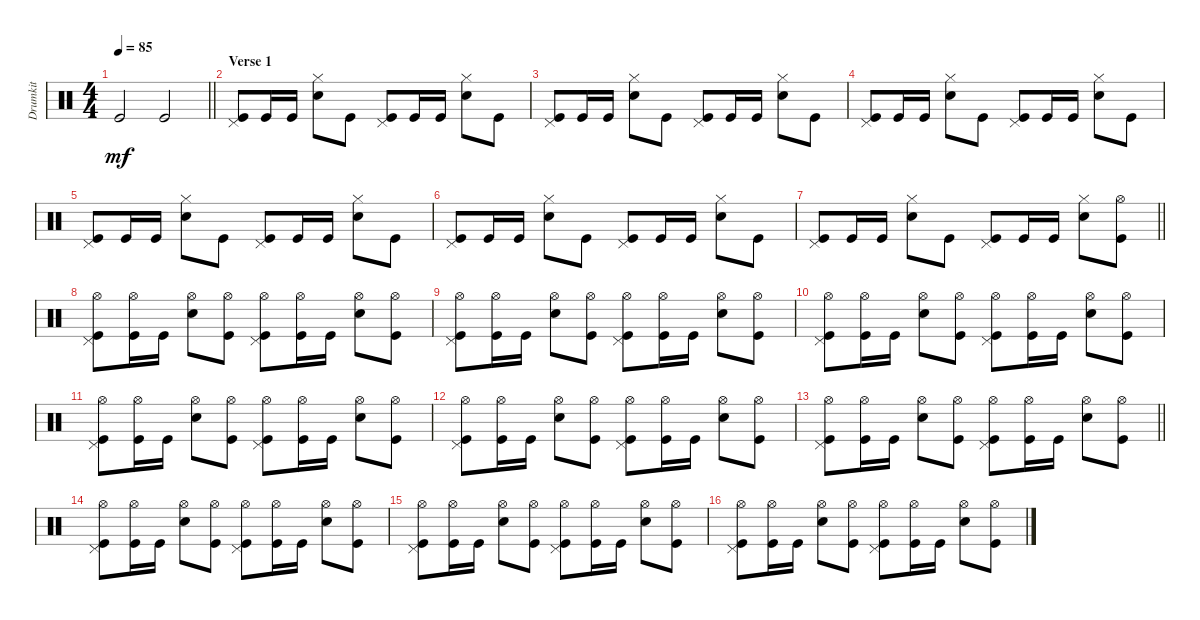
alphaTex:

\track ("Drumkit" "Drumkit") {instrument percussion}
\staff {score}
\articulation defaults
\ts (4 4)
\tempo 85
\clef neutral
\barLineRight lightlight
\ks c "Kick (hit)".2{dy mf} "Kick (hit)".2
|
\section ("" "Verse 1")
("Kick (hit)" "Pedal Hi-Hat (hit)").8 "Kick (hit)".16 "Kick (hit)".16 ("Snare (hit) 2" "Hi-Hat (closed)").8 "Kick (hit)".8 ("Kick (hit)" "Pedal Hi-Hat (hit)").8 "Kick (hit)".16 "Kick (hit)".16 ("Snare (hit) 2" "Hi-Hat (closed)").8 "Kick (hit)".8 |
("Kick (hit)" "Pedal Hi-Hat (hit)").8 "Kick (hit)".16 "Kick (hit)".16 ("Snare (hit) 2" "Hi-Hat (closed)").8 "Kick (hit)".8 ("Kick (hit)" "Pedal Hi-Hat (hit)").8 "Kick (hit)".16 "Kick (hit)".16 ("Snare (hit) 2" "Hi-Hat (closed)").8 "Kick (hit)".8 |
("Kick (hit)" "Pedal Hi-Hat (hit)").8 "Kick (hit)".16 "Kick (hit)".16 ("Snare (hit) 2" "Hi-Hat (closed)").8 "Kick (hit)".8 ("Kick (hit)" "Pedal Hi-Hat (hit)").8 "Kick (hit)".16 "Kick (hit)".16 ("Snare (hit) 2" "Hi-Hat (closed)").8 "Kick (hit)".8 |
("Kick (hit)" "Pedal Hi-Hat (hit)").8 "Kick (hit)".16 "Kick (hit)".16 ("Snare (hit) 2" "Hi-Hat (closed)").8 "Kick (hit)".8 ("Kick (hit)" "Pedal Hi-Hat (hit)").8 "Kick (hit)".16 "Kick (hit)".16 ("Snare (hit) 2" "Hi-Hat (closed)").8 "Kick (hit)".8 |
("Kick (hit)" "Pedal Hi-Hat (hit)").8 "Kick (hit)".16 "Kick (hit)".16 ("Snare (hit) 2" "Hi-Hat (closed)").8 "Kick (hit)".8 ("Kick (hit)" "Pedal Hi-Hat (hit)").8 "Kick (hit)".16 "Kick (hit)".16 ("Snare (hit) 2" "Hi-Hat (closed)").8 "Kick (hit)".8 |
\barLineRight lightlight
("Kick (hit)" "Pedal Hi-Hat (hit)").8 "Kick (hit)".16 "Kick (hit)".16 ("Snare (hit) 2" "Hi-Hat (closed)").8 "Kick (hit)".8 ("Kick (hit)" "Pedal Hi-Hat (hit)").8 "Kick (hit)".16 "Kick (hit)".16 ("Snare (hit) 2" "Hi-Hat (closed)").8 ("Kick (hit)" "Hi-Hat (open)").8 |
("Kick (hit)" "Pedal Hi-Hat (hit)" "Hi-Hat (open)").8 ("Kick (hit)" "Hi-Hat (open)").16 "Kick (hit)".16 ("Snare (hit) 2" "Hi-Hat (open)").8 ("Kick (hit)" "Hi-Hat (open)").8 ("Kick (hit)" "Pedal Hi-Hat (hit)" "Hi-Hat (open)").8 ("Kick (hit)" "Hi-Hat (open)").16 "Kick (hit)".16 ("Snare (hit) 2" "Hi-Hat (open)").8 ("Kick (hit)" "Hi-Hat (open)").8 |
("Kick (hit)" "Pedal Hi-Hat (hit)" "Hi-Hat (open)").8 ("Kick (hit)" "Hi-Hat (open)").16 "Kick (hit)".16 ("Snare (hit) 2" "Hi-Hat (open)").8 ("Kick (hit)" "Hi-Hat (open)").8 ("Kick (hit)" "Pedal Hi-Hat (hit)" "Hi-Hat (open)").8 ("Kick (hit)" "Hi-Hat (open)").16 "Kick (hit)".16 ("Snare (hit) 2" "Hi-Hat (open)").8 ("Kick (hit)" "Hi-Hat (open)").8 |
("Kick (hit)" "Pedal Hi-Hat (hit)" "Hi-Hat (open)").8 ("Kick (hit)" "Hi-Hat (open)").16 "Kick (hit)".16 ("Snare (hit) 2" "Hi-Hat (open)").8 ("Kick (hit)" "Hi-Hat (open)").8 ("Kick (hit)" "Pedal Hi-Hat (hit)" "Hi-Hat (open)").8 ("Kick (hit)" "Hi-Hat (open)").16 "Kick (hit)".16 ("Snare (hit) 2" "Hi-Hat (open)").8 ("Kick (hit)" "Hi-Hat (open)").8 |
("Kick (hit)" "Pedal Hi-Hat (hit)" "Hi-Hat (open)").8 ("Kick (hit)" "Hi-Hat (open)").16 "Kick (hit)".16 ("Snare (hit) 2" "Hi-Hat (open)").8 ("Kick (hit)" "Hi-Hat (open)").8 ("Kick (hit)" "Pedal Hi-Hat (hit)" "Hi-Hat (open)").8 ("Kick (hit)" "Hi-Hat (open)").16 "Kick (hit)".16 ("Snare (hit) 2" "Hi-Hat (open)").8 ("Kick (hit)" "Hi-Hat (open)").8 |
("Kick (hit)" "Pedal Hi-Hat (hit)" "Hi-Hat (open)").8 ("Kick (hit)" "Hi-Hat (open)").16 "Kick (hit)".16 ("Snare (hit) 2" "Hi-Hat (open)").8 ("Kick (hit)" "Hi-Hat (open)").8 ("Kick (hit)" "Pedal Hi-Hat (hit)" "Hi-Hat (open)").8 ("Kick (hit)" "Hi-Hat (open)").16 "Kick (hit)".16 ("Snare (hit) 2" "Hi-Hat (open)").8 ("Kick (hit)" "Hi-Hat (open)").8 |
\barLineRight lightlight
("Kick (hit)" "Pedal Hi-Hat (hit)" "Hi-Hat (open)").8 ("Kick (hit)" "Hi-Hat (open)").16 "Kick (hit)".16 ("Snare (hit) 2" "Hi-Hat (open)").8 ("Kick (hit)" "Hi-Hat (open)").8 ("Kick (hit)" "Pedal Hi-Hat (hit)" "Hi-Hat (open)").8 ("Kick (hit)" "Hi-Hat (open)").16 "Kick (hit)".16 ("Snare (hit) 2" "Hi-Hat (open)").8 ("Kick (hit)" "Hi-Hat (open)").8 |
("Kick (hit)" "Pedal Hi-Hat (hit)" "Hi-Hat (open)").8 ("Kick (hit)" "Hi-Hat (open)").16 "Kick (hit)".16 ("Snare (hit) 2" "Hi-Hat (open)").8 ("Kick (hit)" "Hi-Hat (open)").8 ("Kick (hit)" "Pedal Hi-Hat (hit)" "Hi-Hat (open)").8 ("Kick (hit)" "Hi-Hat (open)").16 "Kick (hit)".16 ("Snare (hit) 2" "Hi-Hat (open)").8 ("Kick (hit)" "Hi-Hat (open)").8 |
("Kick (hit)" "Pedal Hi-Hat (hit)" "Hi-Hat (open)").8 ("Kick (hit)" "Hi-Hat (open)").16 "Kick (hit)".16 ("Snare (hit) 2" "Hi-Hat (open)").8 ("Kick (hit)" "Hi-Hat (open)").8 ("Kick (hit)" "Pedal Hi-Hat (hit)" "Hi-Hat (open)").8 ("Kick (hit)" "Hi-Hat (open)").16 "Kick (hit)".16 ("Snare (hit) 2" "Hi-Hat (open)").8 ("Kick (hit)" "Hi-Hat (open)").8 |
("Kick (hit)" "Pedal Hi-Hat (hit)" "Hi-Hat (open)").8 ("Kick (hit)" "Hi-Hat (open)").16 "Kick (hit)".16 ("Snare (hit) 2" "Hi-Hat (open)").8 ("Kick (hit)" "Hi-Hat (open)").8 ("Kick (hit)" "Pedal Hi-Hat (hit)" "Hi-Hat (open)").8 ("Kick (hit)" "Hi-Hat (open)").16 "Kick (hit)".16 ("Snare (hit) 2" "Hi-Hat (open)").8 ("Kick (hit)" "Hi-Hat (open)").8
